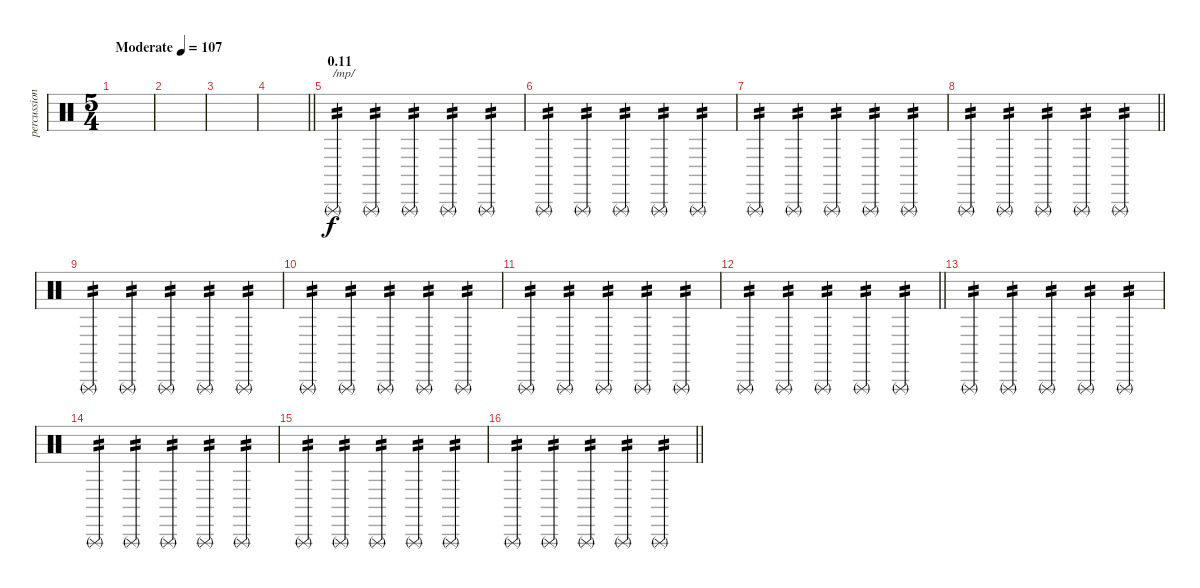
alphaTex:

\track ("percussion" "percussion") {instrument percussion}
\staff {score}
\articulation defaults
\ts (5 4)
\tempo (107 "Moderate")
\clef neutral
\ks c
|
|
|
\barLineRight lightlight
|
\section ("" "0.11")
"Triangle (rnute)".4{txt "/mp/" tp 2} "Triangle (rnute)".4{tp 2} "Triangle (rnute)".4{tp 2} "Triangle (rnute)".4{tp 2} "Triangle (rnute)".4{tp 2} |
"Triangle (rnute)".4{tp 2} "Triangle (rnute)".4{tp 2} "Triangle (rnute)".4{tp 2} "Triangle (rnute)".4{tp 2} "Triangle (rnute)".4{tp 2} |
"Triangle (rnute)".4{tp 2} "Triangle (rnute)".4{tp 2} "Triangle (rnute)".4{tp 2} "Triangle (rnute)".4{tp 2} "Triangle (rnute)".4{tp 2} |
\barLineRight lightlight "Triangle (rnute)".4{tp 2} "Triangle (rnute)".4{tp 2} "Triangle (rnute)".4{tp 2} "Triangle (rnute)".4{tp 2} "Triangle (rnute)".4{tp 2}
|
"Triangle (rnute)".4{tp 2} "Triangle (rnute)".4{tp 2} "Triangle (rnute)".4{tp 2} "Triangle (rnute)".4{tp 2} "Triangle (rnute)".4{tp 2} |
"Triangle (rnute)".4{tp 2} "Triangle (rnute)".4{tp 2} "Triangle (rnute)".4{tp 2} "Triangle (rnute)".4{tp 2} "Triangle (rnute)".4{tp 2} |
"Triangle (rnute)".4{tp 2} "Triangle (rnute)".4{tp 2} "Triangle (rnute)".4{tp 2} "Triangle (rnute)".4{tp 2} "Triangle (rnute)".4{tp 2} |
\barLineRight lightlight "Triangle (rnute)".4{tp 2} "Triangle (rnute)".4{tp 2} "Triangle (rnute)".4{tp 2} "Triangle (rnute)".4{tp 2} "Triangle (rnute)".4{tp 2}
|
"Triangle (rnute)".4{tp 2} "Triangle (rnute)".4{tp 2} "Triangle (rnute)".4{tp 2} "Triangle (rnute)".4{tp 2} "Triangle (rnute)".4{tp 2} |
"Triangle (rnute)".4{tp 2} "Triangle (rnute)".4{tp 2} "Triangle (rnute)".4{tp 2} "Triangle (rnute)".4{tp 2} "Triangle (rnute)".4{tp 2} |
"Triangle (rnute)".4{tp 2} "Triangle (rnute)".4{tp 2} "Triangle (rnute)".4{tp 2} "Triangle (rnute)".4{tp 2} "Triangle (rnute)".4{tp 2} |
\barLineRight lightlight "Triangle (rnute)".4{tp 2} "Triangle (rnute)".4{tp 2} "Triangle (rnute)".4{tp 2} "Triangle (rnute)".4{tp 2} "Triangle (rnute)".4{tp 2}
